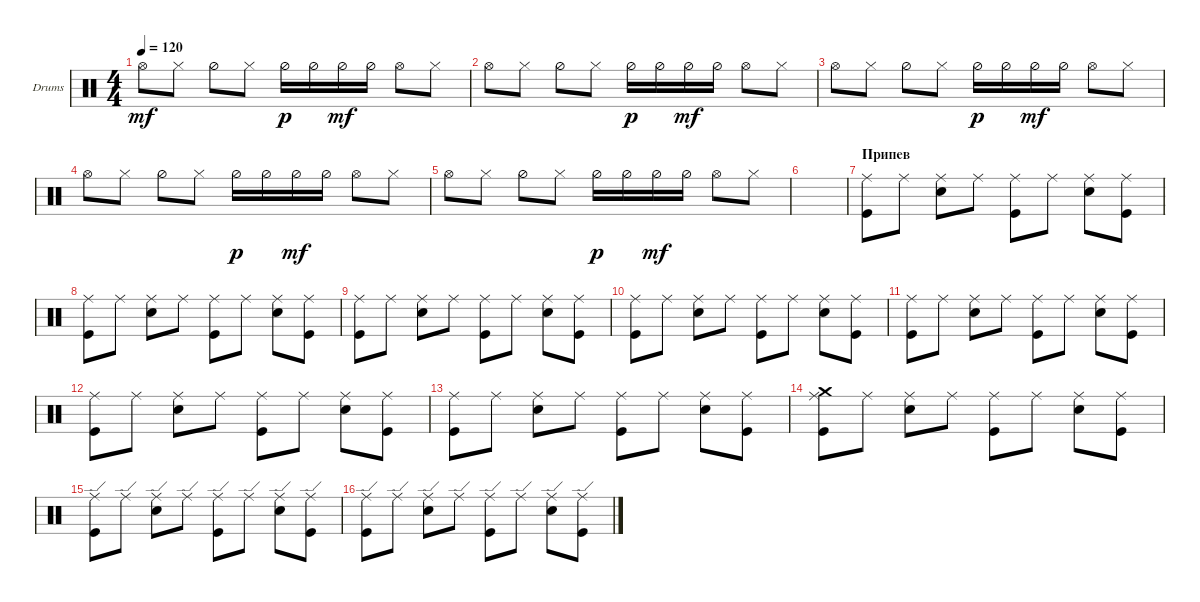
\defaultSystemsLayout 4
\bracketExtendMode groupsimilarinstruments
\firstSystemTrackNameOrientation horizontal
\otherSystemsTrackNameOrientation horizontal
\track ("Drumkit" "Drums") {instrument percussion}
\staff {score}
\articulation defaults
\ts (4 4)
\tempo 120
\clef neutral
\ks c "Hi-Hat (open)".8{dy mf} "Hi-Hat (closed)".8 "Hi-Hat (half)".8 "Hi-Hat (closed)".8 "Hi-Hat (half)".16{dy p} "Hi-Hat (half)".16 "Hi-Hat (half)".16{dy mf} "Hi-Hat (half)".16 "Hi-Hat (open)".8 "Hi-Hat (closed)".8
|
"Hi-Hat (open)".8 "Hi-Hat (closed)".8 "Hi-Hat (half)".8 "Hi-Hat (closed)".8 "Hi-Hat (half)".16{dy p} "Hi-Hat (half)".16 "Hi-Hat (half)".16{dy mf} "Hi-Hat (half)".16 "Hi-Hat (open)".8 "Hi-Hat (closed)".8 |
"Hi-Hat (open)".8 "Hi-Hat (closed)".8 "Hi-Hat (half)".8 "Hi-Hat (closed)".8 "Hi-Hat (half)".16{dy p} "Hi-Hat (half)".16 "Hi-Hat (half)".16{dy mf} "Hi-Hat (half)".16 "Hi-Hat (open)".8 "Hi-Hat (closed)".8 |
"Hi-Hat (open)".8 "Hi-Hat (closed)".8 "Hi-Hat (half)".8 "Hi-Hat (closed)".8 "Hi-Hat (half)".16{dy p} "Hi-Hat (half)".16 "Hi-Hat (half)".16{dy mf} "Hi-Hat (half)".16 "Hi-Hat (open)".8 "Hi-Hat (closed)".8 |
"Hi-Hat (open)".8 "Hi-Hat (closed)".8 "Hi-Hat (half)".8 "Hi-Hat (closed)".8 "Hi-Hat (half)".16{dy p} "Hi-Hat (half)".16 "Hi-Hat (half)".16{dy mf} "Hi-Hat (half)".16 "Hi-Hat (open)".8 "Hi-Hat (closed)".8 |
|
\section ("" "Припев")
("Kick (hit)" "Ride (middle)").8 "Ride (middle)".8 ("Snare (hit) 2" "Ride (middle)").8 "Ride (middle)".8 ("Ride (middle)" "Kick (hit)").8 "Ride (middle)".8 ("Snare (hit) 2" "Ride (middle)").8 ("Ride (middle)" "Kick (hit)").8 |
("Kick (hit)" "Ride (middle)").8 "Ride (middle)".8 ("Snare (hit) 2" "Ride (middle)").8 "Ride (middle)".8 ("Ride (middle)" "Kick (hit)").8 "Ride (middle)".8 ("Snare (hit) 2" "Ride (middle)").8 ("Ride (middle)" "Kick (hit)").8 |
("Kick (hit)" "Ride (middle)").8 "Ride (middle)".8 ("Snare (hit) 2" "Ride (middle)").8 "Ride (middle)".8 ("Ride (middle)" "Kick (hit)").8 "Ride (middle)".8 ("Snare (hit) 2" "Ride (middle)").8 ("Ride (middle)" "Kick (hit)").8 |
("Kick (hit)" "Ride (middle)").8 "Ride (middle)".8 ("Snare (hit) 2" "Ride (middle)").8 "Ride (middle)".8 ("Ride (middle)" "Kick (hit)").8 "Ride (middle)".8 ("Snare (hit) 2" "Ride (middle)").8 ("Ride (middle)" "Kick (hit)").8 |
("Kick (hit)" "Ride (middle)").8 "Ride (middle)".8 ("Snare (hit) 2" "Ride (middle)").8 "Ride (middle)".8 ("Ride (middle)" "Kick (hit)").8 "Ride (middle)".8 ("Snare (hit) 2" "Ride (middle)").8 ("Ride (middle)" "Kick (hit)").8 |
("Kick (hit)" "Ride (middle)").8 "Ride (middle)".8 ("Snare (hit) 2" "Ride (middle)").8 "Ride (middle)".8 ("Ride (middle)" "Kick (hit)").8 "Ride (middle)".8 ("Snare (hit) 2" "Ride (middle)").8 ("Ride (middle)" "Kick (hit)").8 |
("Kick (hit)" "Ride (middle)").8 "Ride (middle)".8 ("Snare (hit) 2" "Ride (middle)").8 "Ride (middle)".8 ("Ride (middle)" "Kick (hit)").8 "Ride (middle)".8 ("Snare (hit) 2" "Ride (middle)").8 ("Ride (middle)" "Kick (hit)").8 |
("Kick (hit)" "Ride (middle)" "Crash medium (hit)").8 "Ride (middle)".8 ("Snare (hit) 2" "Ride (middle)").8 "Ride (middle)".8 ("Ride (middle)" "Kick (hit)").8 "Ride (middle)".8 ("Snare (hit) 2" "Ride (middle)").8 ("Ride (middle)" "Kick (hit)").8 |
("Kick (hit)" "Ride (edge)").8 "Ride (edge)".8 ("Snare (hit) 2" "Ride (edge)").8 "Ride (edge)".8 ("Ride (edge)" "Kick (hit)").8 "Ride (edge)".8 ("Snare (hit) 2" "Ride (edge)").8 ("Ride (edge)" "Kick (hit)").8 |
("Kick (hit)" "Ride (edge)").8 "Ride (edge)".8 ("Snare (hit) 2" "Ride (edge)").8 "Ride (edge)".8 ("Ride (edge)" "Kick (hit)").8 "Ride (edge)".8 ("Snare (hit) 2" "Ride (edge)").8 ("Ride (edge)" "Kick (hit)").8
